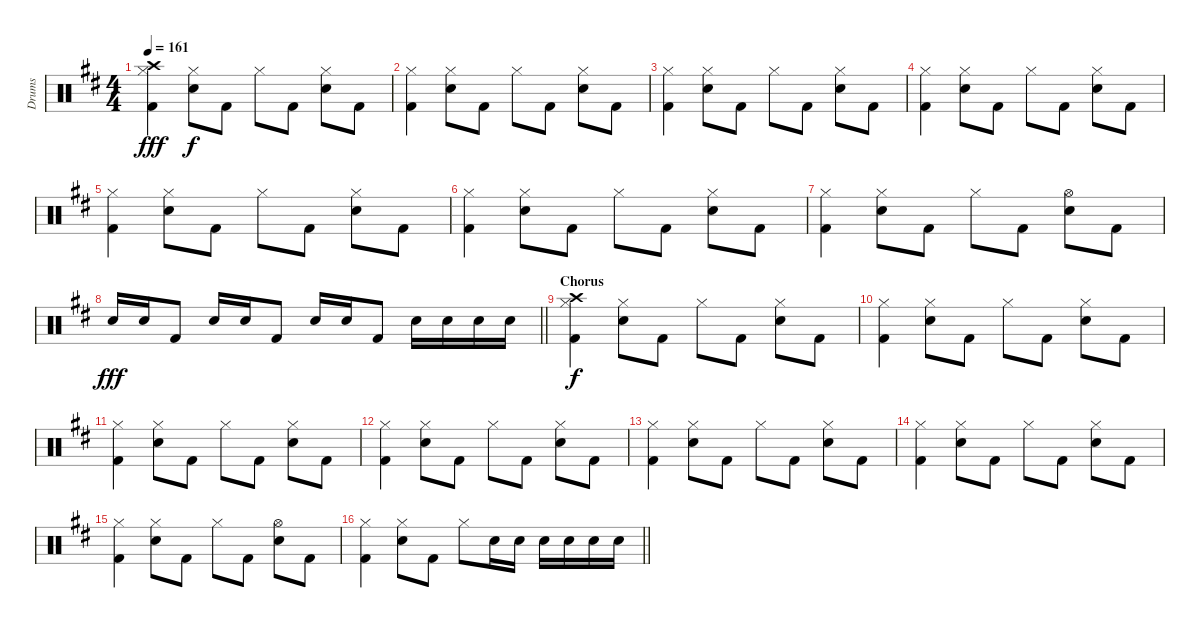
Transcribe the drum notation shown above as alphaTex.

\track ("Drums" "Drums") {instrument percussion}
\staff {score}
\articulation defaults
\ts (4 4)
\tempo 161
\clef neutral
\ks d
("Hi-Hat (closed)" "Crash high (hit)" "Kick (hit) 2").4{dy fff} ("Hi-Hat (closed)" "Electric Snare (hit)").8{dy f} "Kick (hit) 2".8 "Hi-Hat (closed)".8 "Kick (hit) 2".8 ("Hi-Hat (closed)" "Electric Snare (hit)").8 "Kick (hit) 2".8 |
("Hi-Hat (closed)" "Kick (hit) 2").4 ("Hi-Hat (closed)" "Electric Snare (hit)").8 "Kick (hit) 2".8 "Hi-Hat (closed)".8 "Kick (hit) 2".8 ("Hi-Hat (closed)" "Electric Snare (hit)").8 "Kick (hit) 2".8 |
("Hi-Hat (closed)" "Kick (hit) 2").4 ("Hi-Hat (closed)" "Electric Snare (hit)").8 "Kick (hit) 2".8 "Hi-Hat (closed)".8 "Kick (hit) 2".8 ("Hi-Hat (closed)" "Electric Snare (hit)").8 "Kick (hit) 2".8 |
("Hi-Hat (closed)" "Kick (hit) 2").4 ("Hi-Hat (closed)" "Electric Snare (hit)").8 "Kick (hit) 2".8 "Hi-Hat (closed)".8 "Kick (hit) 2".8 ("Hi-Hat (closed)" "Electric Snare (hit)").8 "Kick (hit) 2".8 |
("Hi-Hat (closed)" "Kick (hit) 2").4 ("Hi-Hat (closed)" "Electric Snare (hit)").8 "Kick (hit) 2".8 "Hi-Hat (closed)".8 "Kick (hit) 2".8 ("Hi-Hat (closed)" "Electric Snare (hit)").8 "Kick (hit) 2".8 |
("Hi-Hat (closed)" "Kick (hit) 2").4 ("Hi-Hat (closed)" "Electric Snare (hit)").8 "Kick (hit) 2".8 "Hi-Hat (closed)".8 "Kick (hit) 2".8 ("Hi-Hat (closed)" "Electric Snare (hit)").8 "Kick (hit) 2".8 |
("Hi-Hat (closed)" "Kick (hit) 2").4 ("Hi-Hat (closed)" "Electric Snare (hit)").8 "Kick (hit) 2".8 "Hi-Hat (closed)".8 "Kick (hit) 2".8 ("Hi-Hat (open)" "Electric Snare (hit)").8 "Kick (hit) 2".8 |
\barLineRight lightlight "Electric Snare (hit)".16{dy fff} "Electric Snare (hit)".16 "Kick (hit) 2".8 "Electric Snare (hit)".16 "Electric Snare (hit)".16 "Kick (hit) 2".8 "Electric Snare (hit)".16 "Electric Snare (hit)".16 "Kick (hit) 2".8 "Electric Snare (hit)".16 "Electric Snare (hit)".16 "Electric Snare (hit)".16 "Electric Snare (hit)".16
|
\section ("" "Chorus")
("Hi-Hat (closed)" "Crash high (hit)" "Kick (hit) 2").4{dy f} ("Hi-Hat (closed)" "Electric Snare (hit)").8 "Kick (hit) 2".8 "Hi-Hat (closed)".8 "Kick (hit) 2".8 ("Hi-Hat (closed)" "Electric Snare (hit)").8 "Kick (hit) 2".8 |
("Hi-Hat (closed)" "Kick (hit) 2").4 ("Hi-Hat (closed)" "Electric Snare (hit)").8 "Kick (hit) 2".8 "Hi-Hat (closed)".8 "Kick (hit) 2".8 ("Hi-Hat (closed)" "Electric Snare (hit)").8 "Kick (hit) 2".8 |
("Hi-Hat (closed)" "Kick (hit) 2").4 ("Hi-Hat (closed)" "Electric Snare (hit)").8 "Kick (hit) 2".8 "Hi-Hat (closed)".8 "Kick (hit) 2".8 ("Hi-Hat (closed)" "Electric Snare (hit)").8 "Kick (hit) 2".8 |
("Hi-Hat (closed)" "Kick (hit) 2").4 ("Hi-Hat (closed)" "Electric Snare (hit)").8 "Kick (hit) 2".8 "Hi-Hat (closed)".8 "Kick (hit) 2".8 ("Hi-Hat (closed)" "Electric Snare (hit)").8 "Kick (hit) 2".8 |
("Hi-Hat (closed)" "Kick (hit) 2").4 ("Hi-Hat (closed)" "Electric Snare (hit)").8 "Kick (hit) 2".8 "Hi-Hat (closed)".8 "Kick (hit) 2".8 ("Hi-Hat (closed)" "Electric Snare (hit)").8 "Kick (hit) 2".8 |
("Hi-Hat (closed)" "Kick (hit) 2").4 ("Hi-Hat (closed)" "Electric Snare (hit)").8 "Kick (hit) 2".8 "Hi-Hat (closed)".8 "Kick (hit) 2".8 ("Hi-Hat (closed)" "Electric Snare (hit)").8 "Kick (hit) 2".8 |
("Hi-Hat (closed)" "Kick (hit) 2").4 ("Hi-Hat (closed)" "Electric Snare (hit)").8 "Kick (hit) 2".8 "Hi-Hat (closed)".8 "Kick (hit) 2".8 ("Hi-Hat (open)" "Electric Snare (hit)").8 "Kick (hit) 2".8 |
\barLineRight lightlight
("Hi-Hat (closed)" "Kick (hit) 2").4 ("Hi-Hat (closed)" "Electric Snare (hit)").8 "Kick (hit) 2".8 "Hi-Hat (closed)".8 "Electric Snare (hit)".16 "Electric Snare (hit)".16 "Electric Snare (hit)".16 "Electric Snare (hit)".16 "Electric Snare (hit)".16 "Electric Snare (hit)".16
